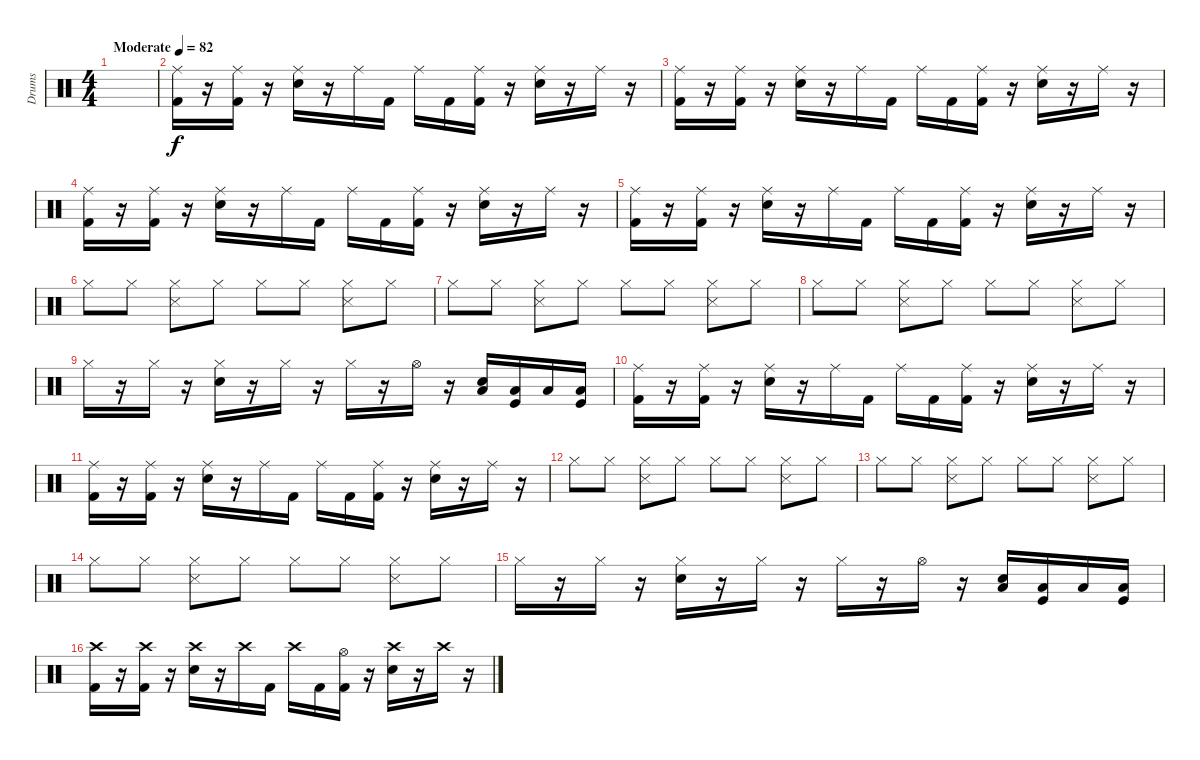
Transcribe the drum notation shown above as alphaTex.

\track ("Drums" "Drums") {instrument percussion}
\staff {score}
\articulation defaults
\ts (4 4)
\tempo (82 "Moderate")
\clef neutral
\ks c
|
("Ride (middle)" "Kick (hit) 2").16 r.16 ("Ride (middle)" "Kick (hit) 2").16 r.16 ("Ride (middle)" "Electric Snare (hit)").16 r.16 "Ride (middle)".16 "Kick (hit) 2".16 "Ride (middle)".16 "Kick (hit) 2".16 ("Ride (middle)" "Kick (hit) 2").16 r.16 ("Ride (middle)" "Electric Snare (hit)").16 r.16 "Ride (middle)".16 r.16 |
("Ride (middle)" "Kick (hit) 2").16 r.16 ("Ride (middle)" "Kick (hit) 2").16 r.16 ("Ride (middle)" "Electric Snare (hit)").16 r.16 "Ride (middle)".16 "Kick (hit) 2".16 "Ride (middle)".16 "Kick (hit) 2".16 ("Ride (middle)" "Kick (hit) 2").16 r.16 ("Ride (middle)" "Electric Snare (hit)").16 r.16 "Ride (middle)".16 r.16 |
("Ride (middle)" "Kick (hit) 2").16 r.16 ("Ride (middle)" "Kick (hit) 2").16 r.16 ("Ride (middle)" "Electric Snare (hit)").16 r.16 "Ride (middle)".16 "Kick (hit) 2".16 "Ride (middle)".16 "Kick (hit) 2".16 ("Ride (middle)" "Kick (hit) 2").16 r.16 ("Ride (middle)" "Electric Snare (hit)").16 r.16 "Ride (middle)".16 r.16 |
("Ride (middle)" "Kick (hit) 2").16 r.16 ("Ride (middle)" "Kick (hit) 2").16 r.16 ("Ride (middle)" "Electric Snare (hit)").16 r.16 "Ride (middle)".16 "Kick (hit) 2".16 "Ride (middle)".16 "Kick (hit) 2".16 ("Ride (middle)" "Kick (hit) 2").16 r.16 ("Ride (middle)" "Electric Snare (hit)").16 r.16 "Ride (middle)".16 r.16 |
"Hi-Hat (closed)".8 "Hi-Hat (closed)".8 ("Hi-Hat (closed)" "Snare (side stick) 3").8 "Hi-Hat (closed)".8 "Hi-Hat (closed)".8 "Hi-Hat (closed)".8 ("Hi-Hat (closed)" "Snare (side stick) 3").8 "Hi-Hat (closed)".8 |
"Hi-Hat (closed)".8 "Hi-Hat (closed)".8 ("Hi-Hat (closed)" "Snare (side stick) 3").8 "Hi-Hat (closed)".8 "Hi-Hat (closed)".8 "Hi-Hat (closed)".8 ("Hi-Hat (closed)" "Snare (side stick) 3").8 "Hi-Hat (closed)".8 |
"Hi-Hat (closed)".8 "Hi-Hat (closed)".8 ("Hi-Hat (closed)" "Snare (side stick) 3").8 "Hi-Hat (closed)".8 "Hi-Hat (closed)".8 "Hi-Hat (closed)".8 ("Hi-Hat (closed)" "Snare (side stick) 3").8 "Hi-Hat (closed)".8 |
"Hi-Hat (closed)".16 r.16 "Hi-Hat (closed)".16 r.16 ("Hi-Hat (closed)" "Electric Snare (hit)").16 r.16 "Hi-Hat (closed)".16 r.16 "Hi-Hat (closed)".16 r.16 "Hi-Hat (open)".16 r.16 ("Low Tom (hit)" "Electric Snare (hit)").16 ("Low Tom (hit)" "Kick (hit)").16 "Low Tom (hit)".16 ("Low Tom (hit)" "Kick (hit)").16 |
("Ride (middle)" "Kick (hit) 2").16 r.16 ("Ride (middle)" "Kick (hit) 2").16 r.16 ("Ride (middle)" "Electric Snare (hit)").16 r.16 "Ride (middle)".16 "Kick (hit) 2".16 "Ride (middle)".16 "Kick (hit) 2".16 ("Ride (middle)" "Kick (hit) 2").16 r.16 ("Ride (middle)" "Electric Snare (hit)").16 r.16 "Ride (middle)".16 r.16 |
("Ride (middle)" "Kick (hit) 2").16 r.16 ("Ride (middle)" "Kick (hit) 2").16 r.16 ("Ride (middle)" "Electric Snare (hit)").16 r.16 "Ride (middle)".16 "Kick (hit) 2".16 "Ride (middle)".16 "Kick (hit) 2".16 ("Ride (middle)" "Kick (hit) 2").16 r.16 ("Ride (middle)" "Electric Snare (hit)").16 r.16 "Ride (middle)".16 r.16 |
"Hi-Hat (closed)".8 "Hi-Hat (closed)".8 ("Hi-Hat (closed)" "Snare (side stick) 3").8 "Hi-Hat (closed)".8 "Hi-Hat (closed)".8 "Hi-Hat (closed)".8 ("Hi-Hat (closed)" "Snare (side stick) 3").8 "Hi-Hat (closed)".8 |
"Hi-Hat (closed)".8 "Hi-Hat (closed)".8 ("Hi-Hat (closed)" "Snare (side stick) 3").8 "Hi-Hat (closed)".8 "Hi-Hat (closed)".8 "Hi-Hat (closed)".8 ("Hi-Hat (closed)" "Snare (side stick) 3").8 "Hi-Hat (closed)".8 |
"Hi-Hat (closed)".8 "Hi-Hat (closed)".8 ("Hi-Hat (closed)" "Snare (side stick) 3").8 "Hi-Hat (closed)".8 "Hi-Hat (closed)".8 "Hi-Hat (closed)".8 ("Hi-Hat (closed)" "Snare (side stick) 3").8 "Hi-Hat (closed)".8 |
"Hi-Hat (closed)".16 r.16 "Hi-Hat (closed)".16 r.16 ("Hi-Hat (closed)" "Electric Snare (hit)").16 r.16 "Hi-Hat (closed)".16 r.16 "Hi-Hat (closed)".16 r.16 "Hi-Hat (open)".16 r.16 ("Low Tom (hit)" "Electric Snare (hit)").16 ("Low Tom (hit)" "Kick (hit)").16 "Low Tom (hit)".16 ("Low Tom (hit)" "Kick (hit)").16 |
("Crash high (hit)" "Kick (hit) 2").16 r.16 ("Crash high (hit)" "Kick (hit) 2").16 r.16 ("Crash high (hit)" "Electric Snare (hit)").16 r.16 "Crash high (hit)".16 "Kick (hit) 2".16 "Crash high (hit)".16 "Kick (hit) 2".16 ("Hi-Hat (open)" "Kick (hit) 2").16 r.16 ("Crash high (hit)" "Electric Snare (hit)").16 r.16 "Crash high (hit)".16 r.16
